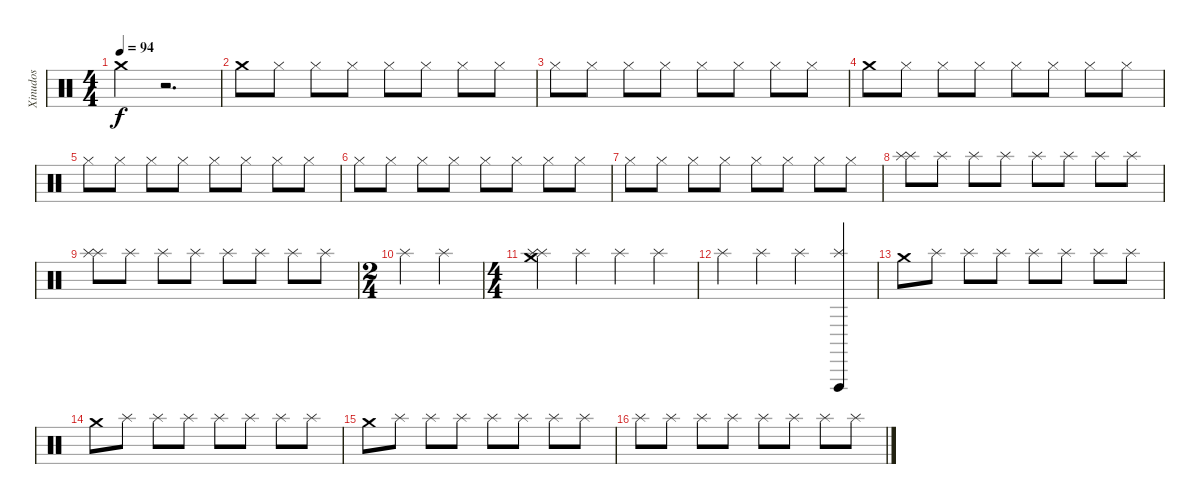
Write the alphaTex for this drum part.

\track ("Xinudos" "Xinudos") {instrument percussion}
\staff {score}
\articulation defaults
\ts (4 4)
\tempo 94
\clef neutral
\ks c "Crash medium (hit)".4{dy f}
r.2{d} |
"Crash medium (hit)".8 "Hi-Hat (closed)".8 "Hi-Hat (closed)".8 "Hi-Hat (closed)".8 "Hi-Hat (closed)".8 "Hi-Hat (closed)".8 "Hi-Hat (closed)".8 "Hi-Hat (closed)".8 |
"Hi-Hat (closed)".8 "Hi-Hat (closed)".8 "Hi-Hat (closed)".8 "Hi-Hat (closed)".8 "Hi-Hat (closed)".8 "Hi-Hat (closed)".8 "Hi-Hat (closed)".8 "Hi-Hat (closed)".8 |
"Crash medium (hit)".8 "Hi-Hat (closed)".8 "Hi-Hat (closed)".8 "Hi-Hat (closed)".8 "Hi-Hat (closed)".8 "Hi-Hat (closed)".8 "Hi-Hat (closed)".8 "Hi-Hat (closed)".8 |
"Hi-Hat (closed)".8 "Hi-Hat (closed)".8 "Hi-Hat (closed)".8 "Hi-Hat (closed)".8 "Hi-Hat (closed)".8 "Hi-Hat (closed)".8 "Hi-Hat (closed)".8 "Hi-Hat (closed)".8 |
"Hi-Hat (closed)".8 "Hi-Hat (closed)".8 "Hi-Hat (closed)".8 "Hi-Hat (closed)".8 "Hi-Hat (closed)".8 "Hi-Hat (closed)".8 "Hi-Hat (closed)".8 "Hi-Hat (closed)".8 |
"Hi-Hat (closed)".8 "Hi-Hat (closed)".8 "Hi-Hat (closed)".8 "Hi-Hat (closed)".8 "Hi-Hat (closed)".8 "Hi-Hat (closed)".8 "Hi-Hat (closed)".8 "Hi-Hat (closed)".8 |
("Splash (hit)" "Splash (hit)").8 "Splash (hit)".8 "Splash (hit)".8 "Splash (hit)".8 "Splash (hit)".8 "Splash (hit)".8 "Splash (hit)".8 "Splash (hit)".8 |
("Splash (hit)" "Splash (hit)").8 "Splash (hit)".8 "Splash (hit)".8 "Splash (hit)".8 "Splash (hit)".8 "Splash (hit)".8 "Splash (hit)".8 "Splash (hit)".8 |
\ts (2 4)
"Splash (hit)".4 "Splash (hit)".4 |
\ts (4 4)
("Splash (hit)" "Crash medium (hit)" "Splash (hit)").4 "Splash (hit)".4 "Splash (hit)".4 "Splash (hit)".4 |
"Splash (hit)".4 "Splash (hit)".4 "Splash (hit)".4 ("Splash (hit)" "Vibraslap (hit)").4 |
"Crash medium (hit)".8 "Splash (hit)".8 "Splash (hit)".8 "Splash (hit)".8 "Splash (hit)".8 "Splash (hit)".8 "Splash (hit)".8 "Splash (hit)".8 |
"Crash medium (hit)".8 "Splash (hit)".8 "Splash (hit)".8 "Splash (hit)".8 "Splash (hit)".8 "Splash (hit)".8 "Splash (hit)".8 "Splash (hit)".8 |
"Crash medium (hit)".8 "Splash (hit)".8 "Splash (hit)".8 "Splash (hit)".8 "Splash (hit)".8 "Splash (hit)".8 "Splash (hit)".8 "Splash (hit)".8 |
"Splash (hit)".8 "Splash (hit)".8 "Splash (hit)".8 "Splash (hit)".8 "Splash (hit)".8 "Splash (hit)".8 "Splash (hit)".8 "Splash (hit)".8
